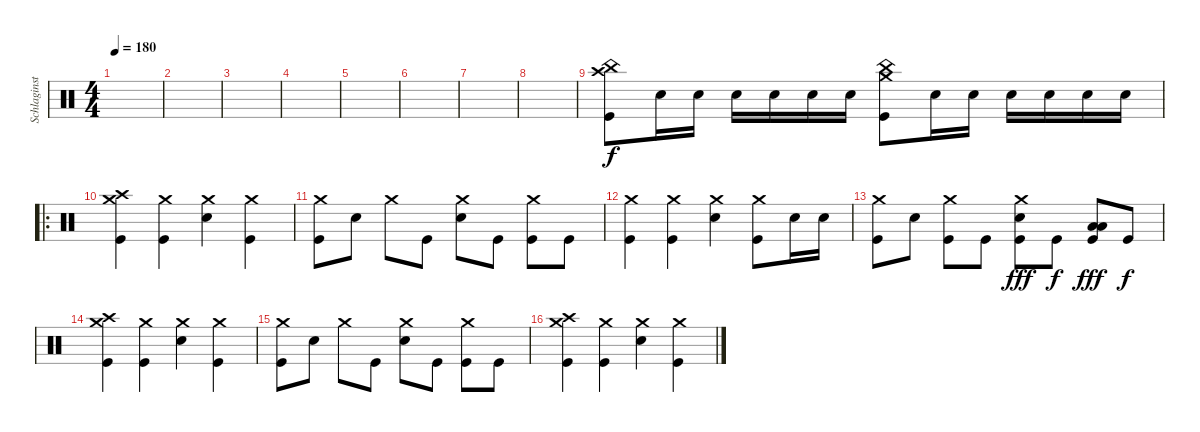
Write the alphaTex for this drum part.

\track ("Schlaginstrumente - Auswahl" "Schlaginst") {instrument percussion}
\staff {score}
\articulation defaults
\ts (4 4)
\tempo 180
\clef neutral
\ks c
|
|
|
|
|
|
|
|
("Crash high (hit)" "Kick (hit)" "China (hit)").8{dy f} "Snare (hit) 2".16 "Snare (hit) 2".16 "Snare (hit) 2".16 "Snare (hit) 2".16 "Snare (hit) 2".16 "Snare (hit) 2".16 ("Kick (hit)" "Crash medium (hit)" "China (hit)").8 "Snare (hit) 2".16 "Snare (hit) 2".16 "Snare (hit) 2".16 "Snare (hit) 2".16 "Snare (hit) 2".16 "Snare (hit) 2".16 |
\ro
("Kick (hit)" "Crash high (hit)" "Crash medium (hit)").4 ("Crash medium (hit)" "Kick (hit)").4 ("Snare (hit) 2" "Crash medium (hit)").4 ("Kick (hit)" "Crash medium (hit)").4 |
("Crash medium (hit)" "Kick (hit)").8 "Snare (hit) 2".8 "Crash medium (hit)".8 "Kick (hit)".8 ("Snare (hit) 2" "Crash medium (hit)").8 "Kick (hit)".8 ("Kick (hit)" "Crash medium (hit)").8 "Kick (hit)".8 |
("Crash medium (hit)" "Kick (hit)").4 ("Crash medium (hit)" "Kick (hit)").4 ("Snare (hit) 2" "Crash medium (hit)").4 ("Kick (hit)" "Crash medium (hit)").8 "Snare (hit) 2".16 "Snare (hit) 2".16 |
("Crash medium (hit)" "Kick (hit)").8 "Snare (hit) 2".8 ("Crash medium (hit)" "Kick (hit)").8 "Kick (hit)".8 ("Snare (hit) 2" "Crash medium (hit)" "Kick (hit)").8{dy fff} "Kick (hit)".8{dy f} ("Kick (hit)" "Low Tom (hit)" "Low Floor Tom (hit)").8{dy fff} "Kick (hit)".8{dy f} |
("Kick (hit)" "Crash high (hit)" "Crash medium (hit)").4 ("Crash medium (hit)" "Kick (hit)").4 ("Snare (hit) 2" "Crash medium (hit)").4 ("Kick (hit)" "Crash medium (hit)").4 |
("Crash medium (hit)" "Kick (hit)").8 "Snare (hit) 2".8 "Crash medium (hit)".8 "Kick (hit)".8 ("Snare (hit) 2" "Crash medium (hit)").8 "Kick (hit)".8 ("Kick (hit)" "Crash medium (hit)").8 "Kick (hit)".8 |
("Kick (hit)" "Crash high (hit)" "Crash medium (hit)").4 ("Crash medium (hit)" "Kick (hit)").4 ("Snare (hit) 2" "Crash medium (hit)").4 ("Kick (hit)" "Crash medium (hit)").4
